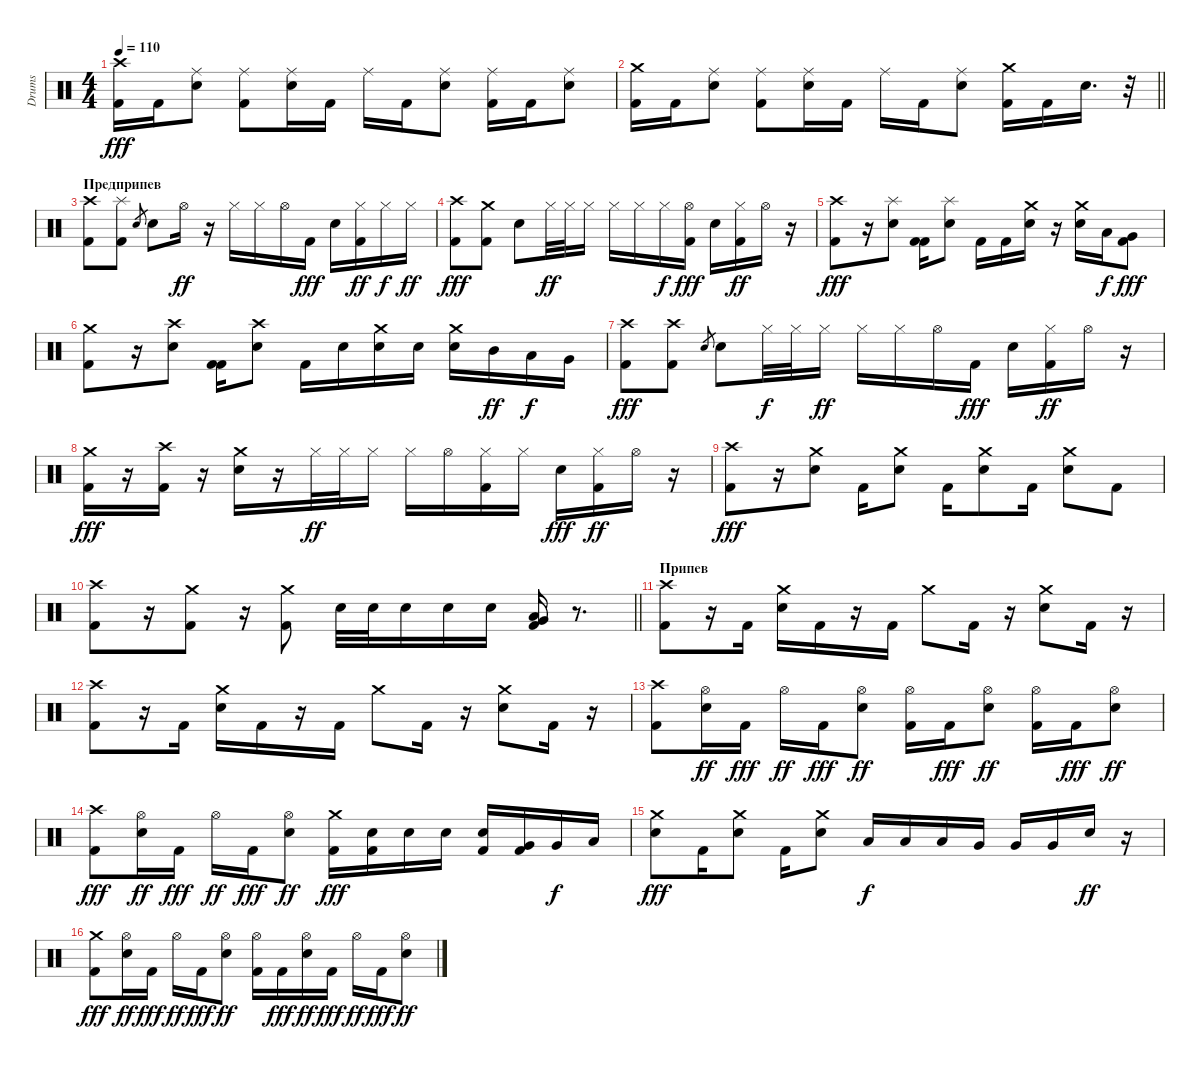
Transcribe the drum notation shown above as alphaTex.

\track ("Drums" "Drums") {instrument percussion}
\staff {score}
\articulation defaults
\ts (4 4)
\tempo 110
\clef neutral
\ks c
("Kick (hit) 2" "Crash high (hit)").16{dy fff} "Kick (hit) 2".16 ("Electric Snare (hit)" "Ride (middle)").8 ("Kick (hit) 2" "Ride (middle)").8 ("Electric Snare (hit)" "Ride (middle)").16 "Kick (hit) 2".16 "Ride (middle)".16 "Kick (hit) 2".16 ("Electric Snare (hit)" "Ride (middle)").8 ("Kick (hit) 2" "Ride (middle)").16 "Kick (hit) 2".16 ("Electric Snare (hit)" "Ride (middle)").8 |
\barLineRight lightlight
("Kick (hit) 2" "Crash medium (hit)").16 "Kick (hit) 2".16 ("Electric Snare (hit)" "Ride (middle)").8 ("Kick (hit) 2" "Ride (middle)").8 ("Electric Snare (hit)" "Ride (middle)").16 "Kick (hit) 2".16 "Ride (middle)".16 "Kick (hit) 2".16 ("Electric Snare (hit)" "Ride (middle)").8 ("Kick (hit) 2" "Crash medium (hit)").16 "Kick (hit) 2".16 "Electric Snare (hit)".16{d} r.32 |
\section ("" "Предприпев")
("Kick (hit) 2" "Crash high (hit)").8 ("Kick (hit) 2" "Splash (hit)").8 "Electric Snare (hit)".8{gr} "Electric Snare (hit)".8 "Hi-Hat (open)".16{dy ff} r.16 "Hi-Hat (closed)".16 "Hi-Hat (closed)".16 "Hi-Hat (open)".16 "Kick (hit) 2".16{dy fff} "Electric Snare (hit)".16 ("Kick (hit) 2" "Hi-Hat (closed)").16{dy ff} "Hi-Hat (closed)".16{dy f} "Hi-Hat (closed)".16{dy ff} |
("Kick (hit) 2" "Crash high (hit)").8{dy fff} ("Kick (hit) 2" "Crash medium (hit)").8 "Electric Snare (hit)".8 "Hi-Hat (closed)".32{dy ff} "Hi-Hat (closed)".32 "Hi-Hat (closed)".16 "Hi-Hat (closed)".16 "Hi-Hat (closed)".16 "Hi-Hat (closed)".16{dy f} ("Kick (hit) 2" "Hi-Hat (open)").16{dy fff} "Electric Snare (hit)".16 ("Kick (hit) 2" "Hi-Hat (closed)").16{dy ff} "Hi-Hat (open)".16 r.16 |
("Kick (hit) 2" "Crash high (hit)").8{dy fff} r.16 ("Electric Snare (hit)" "Splash (hit)").8 ("Kick (hit) 2" "Kick (hit) 2").16 ("Electric Snare (hit)" "Splash (hit)").8 "Kick (hit) 2".16 "Kick (hit) 2".16 ("Electric Snare (hit)" "Crash medium (hit)").16 r.16 ("Electric Snare (hit)" "Crash medium (hit)").16 "Low Tom (hit)".16{dy f} ("Kick (hit) 2" "Very Low Tom (hit)").8{dy fff} |
("Kick (hit) 2" "Crash medium (hit)").8 r.16 ("Electric Snare (hit)" "Crash high (hit)").8 ("Kick (hit) 2" "Kick (hit) 2").16 ("Electric Snare (hit)" "Crash high (hit)").8 "Kick (hit) 2".16 "Electric Snare (hit)".16 ("Electric Snare (hit)" "Crash medium (hit)").16 "Electric Snare (hit)".16 ("Electric Snare (hit)" "Crash medium (hit)").16 "Mid Tom (hit)".16{dy ff} "Low Tom (hit)".16{dy f} "Very Low Tom (hit)".16 |
("Kick (hit) 2" "Crash high (hit)").8{dy fff} ("Kick (hit) 2" "Crash high (hit)").8 "Electric Snare (hit)".8{gr} "Electric Snare (hit)".8 "Hi-Hat (closed)".32{dy f} "Hi-Hat (closed)".32 "Hi-Hat (closed)".16{dy ff} "Hi-Hat (closed)".16 "Hi-Hat (closed)".16 "Hi-Hat (open)".16 "Kick (hit) 2".16{dy fff} "Electric Snare (hit)".16 ("Kick (hit) 2" "Hi-Hat (closed)").16{dy ff} "Hi-Hat (open)".16 r.16 |
("Kick (hit) 2" "Crash medium (hit)").16{dy fff} r.16 ("Kick (hit) 2" "Crash high (hit)").16 r.16 ("Electric Snare (hit)" "Crash medium (hit)").16 r.16 "Hi-Hat (closed)".32{dy ff} "Hi-Hat (closed)".32 "Hi-Hat (closed)".16 "Hi-Hat (closed)".16 "Hi-Hat (open)".16 ("Kick (hit) 2" "Hi-Hat (closed)").16 "Hi-Hat (closed)".16 "Electric Snare (hit)".16{dy fff} ("Kick (hit) 2" "Hi-Hat (closed)").16{dy ff} "Hi-Hat (open)".16 r.16 |
("Kick (hit) 2" "Crash high (hit)").8{dy fff} r.16 ("Electric Snare (hit)" "Crash medium (hit)").8 "Kick (hit) 2".16 ("Electric Snare (hit)" "Crash medium (hit)").8 "Kick (hit) 2".16 ("Electric Snare (hit)" "Crash medium (hit)").8 "Kick (hit) 2".16 ("Electric Snare (hit)" "Crash medium (hit)").8 "Kick (hit) 2".8 |
\barLineRight lightlight
("Kick (hit) 2" "Crash high (hit)").8 r.16 ("Kick (hit) 2" "Crash medium (hit)").8 r.16 ("Kick (hit) 2" "Crash medium (hit)").8 "Electric Snare (hit)".32 "Electric Snare (hit)".32 "Electric Snare (hit)".16 "Electric Snare (hit)".16 "Electric Snare (hit)".16 ("Kick (hit) 2" "Low Floor Tom (hit)" "Very Low Tom (hit)").16 r.8{d} |
\section ("" "Припев")
("Kick (hit) 2" "Crash high (hit)").8 r.16 "Kick (hit) 2".16 ("Electric Snare (hit)" "Crash medium (hit)").16 "Kick (hit) 2".16 r.16 "Kick (hit) 2".16 "Crash medium (hit)".8 "Kick (hit) 2".16 r.16 ("Electric Snare (hit)" "Crash medium (hit)").8 "Kick (hit) 2".16 r.16 |
("Kick (hit) 2" "Crash high (hit)").8 r.16 "Kick (hit) 2".16 ("Electric Snare (hit)" "Crash medium (hit)").16 "Kick (hit) 2".16 r.16 "Kick (hit) 2".16 "Crash medium (hit)".8 "Kick (hit) 2".16 r.16 ("Electric Snare (hit)" "Crash medium (hit)").8 "Kick (hit) 2".16 r.16 |
("Kick (hit) 2" "Crash high (hit)").8 ("Electric Snare (hit)" "Hi-Hat (open)").16{dy ff} "Kick (hit) 2".16{dy fff} "Hi-Hat (open)".16{dy ff} "Kick (hit) 2".16{dy fff} ("Electric Snare (hit)" "Hi-Hat (open)").8{dy ff} ("Kick (hit) 2" "Hi-Hat (open)").16 "Kick (hit) 2".16{dy fff} ("Electric Snare (hit)" "Hi-Hat (open)").8{dy ff} ("Kick (hit) 2" "Hi-Hat (open)").16 "Kick (hit) 2".16{dy fff} ("Electric Snare (hit)" "Hi-Hat (open)").8{dy ff} |
("Kick (hit) 2" "Crash high (hit)").8{dy fff} ("Electric Snare (hit)" "Hi-Hat (open)").16{dy ff} "Kick (hit) 2".16{dy fff} "Hi-Hat (open)".16{dy ff} "Kick (hit) 2".16{dy fff} ("Electric Snare (hit)" "Hi-Hat (open)").8{dy ff} ("Kick (hit) 2" "Crash medium (hit)").16{dy fff} ("Kick (hit) 2" "Electric Snare (hit)").16 "Electric Snare (hit)".16 "Electric Snare (hit)".16 ("Kick (hit) 2" "Electric Snare (hit)").16 ("Kick (hit) 2" "Very Low Tom (hit)").16 "Very Low Tom (hit)".16{dy f} "Low Floor Tom (hit)".16 |
("Electric Snare (hit)" "Crash medium (hit)").8{dy fff} "Kick (hit) 2".16 ("Electric Snare (hit)" "Crash medium (hit)").8 "Kick (hit) 2".16 ("Electric Snare (hit)" "Crash medium (hit)").8 "Low Tom (hit)".16{dy f} "Low Tom (hit)".16 "Low Tom (hit)".16 "Very Low Tom (hit)".16 "Very Low Tom (hit)".16 "Very Low Tom (hit)".16 "Electric Snare (hit)".16{dy ff} r.16 |
("Kick (hit) 2" "Crash medium (hit)").8{dy fff} ("Electric Snare (hit)" "Hi-Hat (open)").16{dy ff} "Kick (hit) 2".16{dy fff} "Hi-Hat (open)".16{dy ff} "Kick (hit) 2".16{dy fff} ("Electric Snare (hit)" "Hi-Hat (open)").8{dy ff} ("Kick (hit) 2" "Hi-Hat (open)").16 "Kick (hit) 2".16{dy fff} ("Electric Snare (hit)" "Hi-Hat (open)").16{dy ff} "Kick (hit) 2".16{dy fff} "Hi-Hat (open)".16{dy ff} "Kick (hit) 2".16{dy fff} ("Electric Snare (hit)" "Hi-Hat (open)").8{dy ff}
